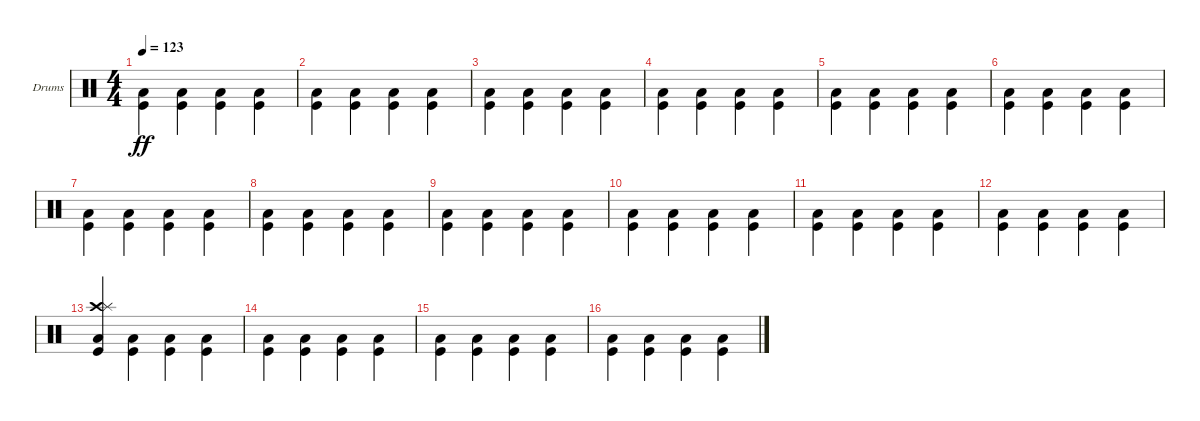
\defaultSystemsLayout 4
\bracketExtendMode groupsimilarinstruments
\firstSystemTrackNameOrientation horizontal
\otherSystemsTrackNameOrientation horizontal
\track ("Drumkit" "Drums") {instrument percussion}
\staff {score}
\articulation defaults
\ts (4 4)
\tempo 123
\clef neutral
\scale
0.333333
\ks c
("Kick (hit)" "Low Tom (hit)").4{dy ff beam invert} ("Kick (hit)" "Low Tom (hit)").4{beam invert} ("Kick (hit)" "Low Tom (hit)").4{beam invert} ("Kick (hit)" "Low Tom (hit)").4{beam invert} |
\scale
0.333333 ("Kick (hit)" "Low Tom (hit)").4{beam invert} ("Kick (hit)" "Low Tom (hit)").4{beam invert} ("Kick (hit)" "Low Tom (hit)").4{beam invert} ("Kick (hit)" "Low Tom (hit)").4{beam invert} |
\scale
0.333333 ("Kick (hit)" "Low Tom (hit)").4{beam invert} ("Kick (hit)" "Low Tom (hit)").4{beam invert} ("Kick (hit)" "Low Tom (hit)").4{beam invert} ("Kick (hit)" "Low Tom (hit)").4{beam invert} |
\scale
0.333333 ("Kick (hit)" "Low Tom (hit)").4{beam invert} ("Kick (hit)" "Low Tom (hit)").4{beam invert} ("Kick (hit)" "Low Tom (hit)").4{beam invert} ("Kick (hit)" "Low Tom (hit)").4{beam invert} |
\scale
0.333333 ("Kick (hit)" "Low Tom (hit)").4{beam invert} ("Kick (hit)" "Low Tom (hit)").4{beam invert} ("Kick (hit)" "Low Tom (hit)").4{beam invert} ("Kick (hit)" "Low Tom (hit)").4{beam invert} |
\scale
0.333333 ("Kick (hit)" "Low Tom (hit)").4{beam invert} ("Kick (hit)" "Low Tom (hit)").4{beam invert} ("Kick (hit)" "Low Tom (hit)").4{beam invert} ("Kick (hit)" "Low Tom (hit)").4{beam invert} |
\scale
0.333333 ("Kick (hit)" "Low Tom (hit)").4{beam invert} ("Kick (hit)" "Low Tom (hit)").4{beam invert} ("Kick (hit)" "Low Tom (hit)").4{beam invert} ("Kick (hit)" "Low Tom (hit)").4{beam invert} |
\scale
0.333333 ("Kick (hit)" "Low Tom (hit)").4{beam invert} ("Kick (hit)" "Low Tom (hit)").4{beam invert} ("Kick (hit)" "Low Tom (hit)").4{beam invert} ("Kick (hit)" "Low Tom (hit)").4{beam invert} |
\scale
0.333333 ("Kick (hit)" "Low Tom (hit)").4{beam invert} ("Kick (hit)" "Low Tom (hit)").4{beam invert} ("Kick (hit)" "Low Tom (hit)").4{beam invert} ("Kick (hit)" "Low Tom (hit)").4{beam invert} |
\scale
0.333333 ("Kick (hit)" "Low Tom (hit)").4{beam invert} ("Kick (hit)" "Low Tom (hit)").4{beam invert} ("Kick (hit)" "Low Tom (hit)").4{beam invert} ("Kick (hit)" "Low Tom (hit)").4{beam invert} |
\scale
0.333333 ("Kick (hit)" "Low Tom (hit)").4{beam invert} ("Kick (hit)" "Low Tom (hit)").4{beam invert} ("Kick (hit)" "Low Tom (hit)").4{beam invert} ("Kick (hit)" "Low Tom (hit)").4{beam invert} |
\scale
0.333333 ("Kick (hit)" "Low Tom (hit)").4{beam invert} ("Kick (hit)" "Low Tom (hit)").4{beam invert} ("Kick (hit)" "Low Tom (hit)").4{beam invert} ("Kick (hit)" "Low Tom (hit)").4{beam invert} |
\scale
0.333333 ("Kick (hit)" "Low Tom (hit)" "Crash high (hit)" "Splash (hit)").4{beam invert} ("Kick (hit)" "Low Tom (hit)").4{beam invert} ("Kick (hit)" "Low Tom (hit)").4{beam invert} ("Kick (hit)" "Low Tom (hit)").4{beam invert} |
\scale
0.333333 ("Kick (hit)" "Low Tom (hit)").4{beam invert} ("Kick (hit)" "Low Tom (hit)").4{beam invert} ("Kick (hit)" "Low Tom (hit)").4{beam invert} ("Kick (hit)" "Low Tom (hit)").4{beam invert} |
\scale
0.333333 ("Kick (hit)" "Low Tom (hit)").4{beam invert} ("Kick (hit)" "Low Tom (hit)").4{beam invert} ("Kick (hit)" "Low Tom (hit)").4{beam invert} ("Kick (hit)" "Low Tom (hit)").4{beam invert} |
\scale
0.333333 ("Kick (hit)" "Low Tom (hit)").4{beam invert} ("Kick (hit)" "Low Tom (hit)").4{beam invert} ("Kick (hit)" "Low Tom (hit)").4{beam invert} ("Kick (hit)" "Low Tom (hit)").4{beam invert}
